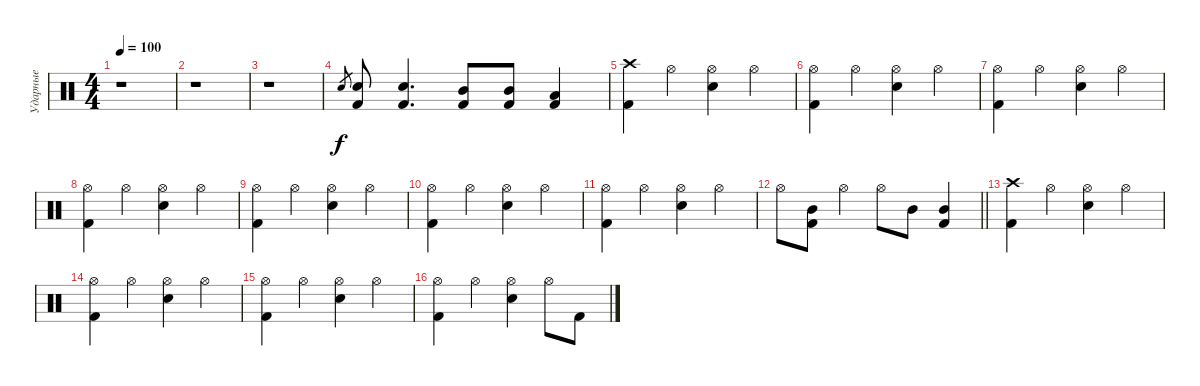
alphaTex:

\track ("Ударные" "Ударные") {instrument percussion}
\staff {score}
\articulation defaults
\ts (4 4)
\tempo 100
\clef neutral
\ks c
r.1{dy f} |
r.1 |
r.1 |
"Snare (hit) 2".8{gr} ("Kick (hit) 2" "Snare (hit) 2").8 ("Kick (hit) 2" "Snare (hit) 2").4{d} ("Kick (hit) 2" "Mid Tom (hit)").8 ("Kick (hit) 2" "Mid Tom (hit)").8 ("Kick (hit) 2" "Low Tom (hit)").4 |
("Kick (hit) 2" "Crash high (hit)").4 "Hi-Hat (open)".4 ("Snare (hit) 2" "Hi-Hat (open)").4 "Hi-Hat (open)".4 |
("Kick (hit) 2" "Hi-Hat (open)").4 "Hi-Hat (open)".4 ("Snare (hit) 2" "Hi-Hat (open)").4 "Hi-Hat (open)".4 |
("Kick (hit) 2" "Hi-Hat (open)").4 "Hi-Hat (open)".4 ("Snare (hit) 2" "Hi-Hat (open)").4 "Hi-Hat (open)".4 |
("Kick (hit) 2" "Hi-Hat (open)").4 "Hi-Hat (open)".4 ("Snare (hit) 2" "Hi-Hat (open)").4 "Hi-Hat (open)".4 |
("Kick (hit) 2" "Hi-Hat (open)").4 "Hi-Hat (open)".4 ("Snare (hit) 2" "Hi-Hat (open)").4 "Hi-Hat (open)".4 |
("Kick (hit) 2" "Hi-Hat (open)").4 "Hi-Hat (open)".4 ("Snare (hit) 2" "Hi-Hat (open)").4 "Hi-Hat (open)".4 |
("Kick (hit) 2" "Hi-Hat (open)").4 "Hi-Hat (open)".4 ("Snare (hit) 2" "Hi-Hat (open)").4 "Hi-Hat (open)".4 |
\barLineRight lightlight "Hi-Hat (open)".8
("Kick (hit) 2" "Mid Tom (hit)").8 "Hi-Hat (open)".4 "Hi-Hat (open)".8 "Mid Tom (hit)".8 ("Kick (hit) 2" "Mid Tom (hit)").4 |
("Kick (hit) 2" "Crash high (hit)").4 "Hi-Hat (open)".4 ("Snare (hit) 2" "Hi-Hat (open)").4 "Hi-Hat (open)".4 |
("Kick (hit) 2" "Hi-Hat (open)").4 "Hi-Hat (open)".4 ("Snare (hit) 2" "Hi-Hat (open)").4 "Hi-Hat (open)".4 |
("Kick (hit) 2" "Hi-Hat (open)").4 "Hi-Hat (open)".4 ("Snare (hit) 2" "Hi-Hat (open)").4 "Hi-Hat (open)".4 |
("Kick (hit) 2" "Hi-Hat (open)").4 "Hi-Hat (open)".4 ("Snare (hit) 2" "Hi-Hat (open)").4 "Hi-Hat (open)".8 "Kick (hit) 2".8
